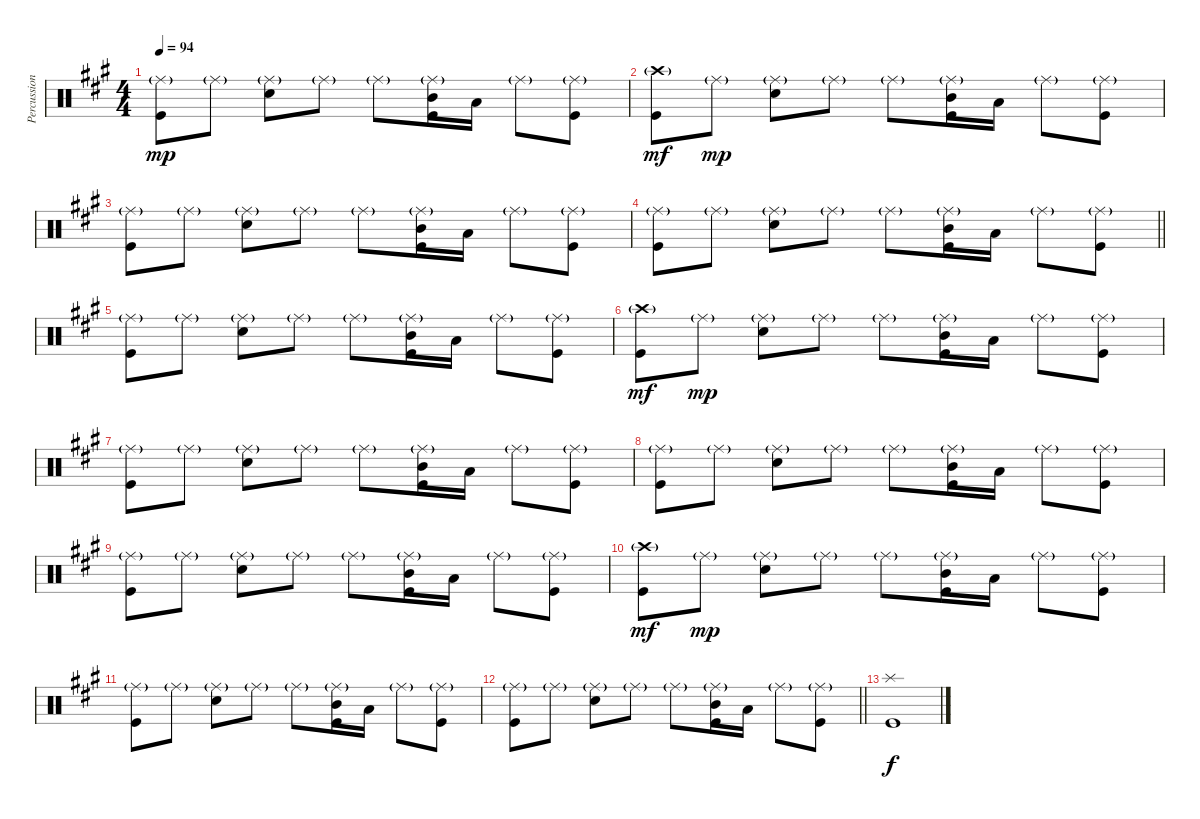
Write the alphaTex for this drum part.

\track ("Percussion" "Percussion") {instrument percussion}
\staff {score}
\articulation defaults
\ts (4 4)
\tempo 94
\clef neutral
\ks a
("Ride (middle)"{g} "Kick (hit)").8{dy mp} "Ride (middle)"{g}.8 ("Ride (middle)"{g} "Electric Snare (hit)").8 "Ride (middle)"{g}.8 "Ride (middle)"{g}.8 ("Ride (middle)"{g} "Mid Tom (hit)" "Kick (hit)").16 "Low Tom (hit)".16 "Ride (middle)"{g}.8 ("Ride (middle)"{g} "Kick (hit)").8 |
("Crash high (hit)"{g} "Kick (hit)").8{dy mf} "Ride (middle)"{g}.8{dy mp} ("Ride (middle)"{g} "Electric Snare (hit)").8 "Ride (middle)"{g}.8 "Ride (middle)"{g}.8 ("Ride (middle)"{g} "Mid Tom (hit)" "Kick (hit)").16 "Low Tom (hit)".16 "Ride (middle)"{g}.8 ("Ride (middle)"{g} "Kick (hit)").8 |
("Ride (middle)"{g} "Kick (hit)").8 "Ride (middle)"{g}.8 ("Ride (middle)"{g} "Electric Snare (hit)").8 "Ride (middle)"{g}.8 "Ride (middle)"{g}.8 ("Ride (middle)"{g} "Mid Tom (hit)" "Kick (hit)").16 "Low Tom (hit)".16 "Ride (middle)"{g}.8 ("Ride (middle)"{g} "Kick (hit)").8 |
\barLineRight lightlight
("Ride (middle)"{g} "Kick (hit)").8 "Ride (middle)"{g}.8 ("Ride (middle)"{g} "Electric Snare (hit)").8 "Ride (middle)"{g}.8 "Ride (middle)"{g}.8 ("Ride (middle)"{g} "Mid Tom (hit)" "Kick (hit)").16 "Low Tom (hit)".16 "Ride (middle)"{g}.8 ("Ride (middle)"{g} "Kick (hit)").8 |
("Ride (middle)"{g} "Kick (hit)").8 "Ride (middle)"{g}.8 ("Ride (middle)"{g} "Electric Snare (hit)").8 "Ride (middle)"{g}.8 "Ride (middle)"{g}.8 ("Ride (middle)"{g} "Mid Tom (hit)" "Kick (hit)").16 "Low Tom (hit)".16 "Ride (middle)"{g}.8 ("Ride (middle)"{g} "Kick (hit)").8 |
("Crash high (hit)"{g} "Kick (hit)").8{dy mf} "Ride (middle)"{g}.8{dy mp} ("Ride (middle)"{g} "Electric Snare (hit)").8 "Ride (middle)"{g}.8 "Ride (middle)"{g}.8 ("Ride (middle)"{g} "Mid Tom (hit)" "Kick (hit)").16 "Low Tom (hit)".16 "Ride (middle)"{g}.8 ("Ride (middle)"{g} "Kick (hit)").8 |
("Ride (middle)"{g} "Kick (hit)").8 "Ride (middle)"{g}.8 ("Ride (middle)"{g} "Electric Snare (hit)").8 "Ride (middle)"{g}.8 "Ride (middle)"{g}.8 ("Ride (middle)"{g} "Mid Tom (hit)" "Kick (hit)").16 "Low Tom (hit)".16 "Ride (middle)"{g}.8 ("Ride (middle)"{g} "Kick (hit)").8 |
("Ride (middle)"{g} "Kick (hit)").8 "Ride (middle)"{g}.8 ("Ride (middle)"{g} "Electric Snare (hit)").8 "Ride (middle)"{g}.8 "Ride (middle)"{g}.8 ("Ride (middle)"{g} "Mid Tom (hit)" "Kick (hit)").16 "Low Tom (hit)".16 "Ride (middle)"{g}.8 ("Ride (middle)"{g} "Kick (hit)").8 |
("Ride (middle)"{g} "Kick (hit)").8 "Ride (middle)"{g}.8 ("Ride (middle)"{g} "Electric Snare (hit)").8 "Ride (middle)"{g}.8 "Ride (middle)"{g}.8 ("Ride (middle)"{g} "Mid Tom (hit)" "Kick (hit)").16 "Low Tom (hit)".16 "Ride (middle)"{g}.8 ("Ride (middle)"{g} "Kick (hit)").8 |
("Crash high (hit)"{g} "Kick (hit)").8{dy mf} "Ride (middle)"{g}.8{dy mp} ("Ride (middle)"{g} "Electric Snare (hit)").8 "Ride (middle)"{g}.8 "Ride (middle)"{g}.8 ("Ride (middle)"{g} "Mid Tom (hit)" "Kick (hit)").16 "Low Tom (hit)".16 "Ride (middle)"{g}.8 ("Ride (middle)"{g} "Kick (hit)").8 |
("Ride (middle)"{g} "Kick (hit)").8 "Ride (middle)"{g}.8 ("Ride (middle)"{g} "Electric Snare (hit)").8 "Ride (middle)"{g}.8 "Ride (middle)"{g}.8 ("Ride (middle)"{g} "Mid Tom (hit)" "Kick (hit)").16 "Low Tom (hit)".16 "Ride (middle)"{g}.8 ("Ride (middle)"{g} "Kick (hit)").8 |
\barLineRight lightlight
("Ride (middle)"{g} "Kick (hit)").8 "Ride (middle)"{g}.8 ("Ride (middle)"{g} "Electric Snare (hit)").8 "Ride (middle)"{g}.8 "Ride (middle)"{g}.8 ("Ride (middle)"{g} "Mid Tom (hit)" "Kick (hit)").16 "Low Tom (hit)".16 "Ride (middle)"{g}.8 ("Ride (middle)"{g} "Kick (hit)").8 |
("Splash (hit)" "Kick (hit)").1{dy f}
